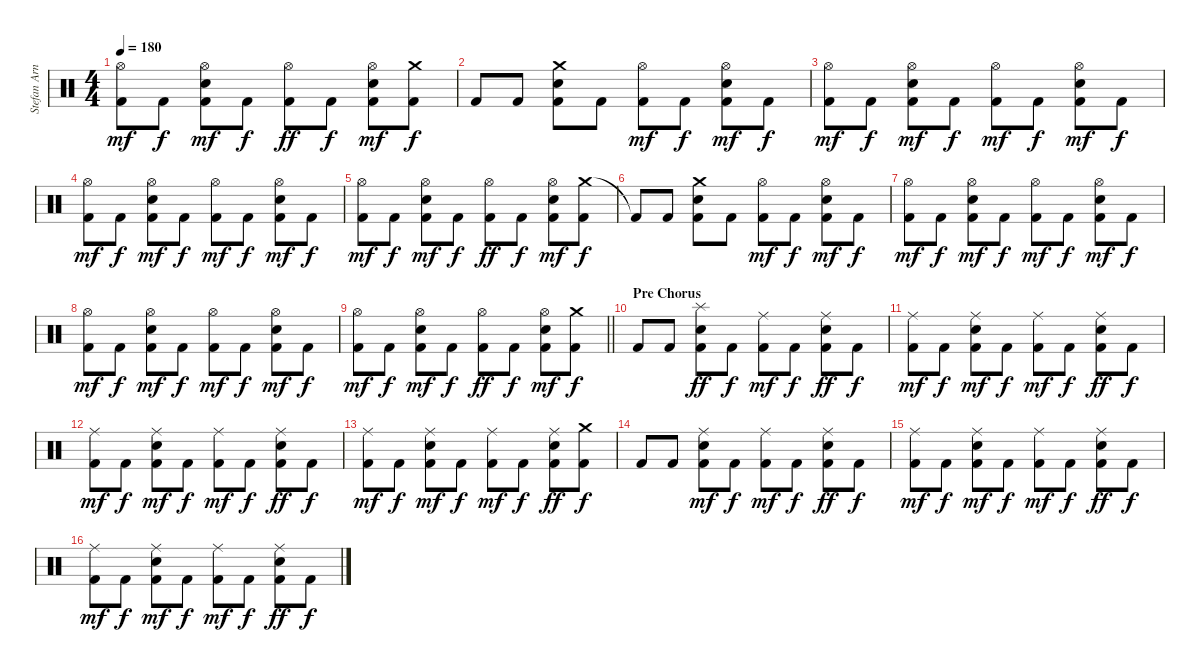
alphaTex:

\track ("Stefan Arnold" "Stefan Arn") {instrument percussion}
\staff {score}
\articulation defaults
\ts (4 4)
\tempo 180
\clef neutral
\ks c
("Hi-Hat (open)" "Kick (hit) 2").8{dy mf} "Kick (hit) 2".8{dy f} ("Hi-Hat (open)" "Electric Snare (hit)" "Kick (hit) 2").8{dy mf} "Kick (hit) 2".8{dy f} ("Hi-Hat (open)" "Kick (hit) 2").8{dy ff} "Kick (hit) 2".8{dy f} ("Hi-Hat (open)" "Electric Snare (hit)" "Kick (hit) 2").8{dy mf} ("Crash medium (hit)" "Kick (hit) 2").8{dy f} |
"Kick (hit) 2".8 "Kick (hit) 2".8 ("Crash medium (hit)" "Electric Snare (hit)" "Kick (hit) 2").8 "Kick (hit) 2".8 ("Hi-Hat (open)" "Kick (hit) 2").8{dy mf} "Kick (hit) 2".8{dy f} ("Hi-Hat (open)" "Electric Snare (hit)" "Kick (hit) 2").8{dy mf} "Kick (hit) 2".8{dy f} |
("Hi-Hat (open)" "Kick (hit) 2").8{dy mf} "Kick (hit) 2".8{dy f} ("Hi-Hat (open)" "Electric Snare (hit)" "Kick (hit) 2").8{dy mf} "Kick (hit) 2".8{dy f} ("Hi-Hat (open)" "Kick (hit) 2").8{dy mf} "Kick (hit) 2".8{dy f} ("Hi-Hat (open)" "Electric Snare (hit)" "Kick (hit) 2").8{dy mf} "Kick (hit) 2".8{dy f} |
("Hi-Hat (open)" "Kick (hit) 2").8{dy mf} "Kick (hit) 2".8{dy f} ("Hi-Hat (open)" "Electric Snare (hit)" "Kick (hit) 2").8{dy mf} "Kick (hit) 2".8{dy f} ("Hi-Hat (open)" "Kick (hit) 2").8{dy mf} "Kick (hit) 2".8{dy f} ("Hi-Hat (open)" "Electric Snare (hit)" "Kick (hit) 2").8{dy mf} "Kick (hit) 2".8{dy f} |
("Hi-Hat (open)" "Kick (hit) 2").8{dy mf} "Kick (hit) 2".8{dy f} ("Hi-Hat (open)" "Electric Snare (hit)" "Kick (hit) 2").8{dy mf} "Kick (hit) 2".8{dy f} ("Hi-Hat (open)" "Kick (hit) 2").8{dy ff} "Kick (hit) 2".8{dy f} ("Hi-Hat (open)" "Electric Snare (hit)" "Kick (hit) 2").8{dy mf} ("Crash medium (hit)" "Kick (hit) 2").8{dy f} |
"Kick (hit) 2"{t}.8 "Kick (hit) 2".8 ("Crash medium (hit)" "Electric Snare (hit)" "Kick (hit) 2").8 "Kick (hit) 2".8 ("Hi-Hat (open)" "Kick (hit) 2").8{dy mf} "Kick (hit) 2".8{dy f} ("Hi-Hat (open)" "Electric Snare (hit)" "Kick (hit) 2").8{dy mf} "Kick (hit) 2".8{dy f} |
("Hi-Hat (open)" "Kick (hit) 2").8{dy mf} "Kick (hit) 2".8{dy f} ("Hi-Hat (open)" "Electric Snare (hit)" "Kick (hit) 2").8{dy mf} "Kick (hit) 2".8{dy f} ("Hi-Hat (open)" "Kick (hit) 2").8{dy mf} "Kick (hit) 2".8{dy f} ("Hi-Hat (open)" "Electric Snare (hit)" "Kick (hit) 2").8{dy mf} "Kick (hit) 2".8{dy f} |
("Hi-Hat (open)" "Kick (hit) 2").8{dy mf} "Kick (hit) 2".8{dy f} ("Hi-Hat (open)" "Electric Snare (hit)" "Kick (hit) 2").8{dy mf} "Kick (hit) 2".8{dy f} ("Hi-Hat (open)" "Kick (hit) 2").8{dy mf} "Kick (hit) 2".8{dy f} ("Hi-Hat (open)" "Electric Snare (hit)" "Kick (hit) 2").8{dy mf} "Kick (hit) 2".8{dy f} |
\barLineRight lightlight
("Hi-Hat (open)" "Kick (hit) 2").8{dy mf} "Kick (hit) 2".8{dy f} ("Hi-Hat (open)" "Electric Snare (hit)" "Kick (hit) 2").8{dy mf} "Kick (hit) 2".8{dy f} ("Hi-Hat (open)" "Kick (hit) 2").8{dy ff} "Kick (hit) 2".8{dy f} ("Hi-Hat (open)" "Electric Snare (hit)" "Kick (hit) 2").8{dy mf} ("Crash medium (hit)" "Kick (hit) 2").8{dy f} |
\section ("" "Pre Chorus")
"Kick (hit) 2".8 "Kick (hit) 2".8 ("Splash (hit)" "Electric Snare (hit)" "Kick (hit) 2").8{dy ff} "Kick (hit) 2".8{dy f} ("Ride (middle)" "Kick (hit) 2").8{dy mf} "Kick (hit) 2".8{dy f} ("Ride (middle)" "Electric Snare (hit)" "Kick (hit) 2").8{dy ff} "Kick (hit) 2".8{dy f} |
("Ride (middle)" "Kick (hit) 2").8{dy mf} "Kick (hit) 2".8{dy f} ("Ride (middle)" "Electric Snare (hit)" "Kick (hit) 2").8{dy mf} "Kick (hit) 2".8{dy f} ("Ride (middle)" "Kick (hit) 2").8{dy mf} "Kick (hit) 2".8{dy f} ("Ride (middle)" "Electric Snare (hit)" "Kick (hit) 2").8{dy ff} "Kick (hit) 2".8{dy f} |
("Ride (middle)" "Kick (hit) 2").8{dy mf} "Kick (hit) 2".8{dy f} ("Ride (middle)" "Electric Snare (hit)" "Kick (hit) 2").8{dy mf} "Kick (hit) 2".8{dy f} ("Ride (middle)" "Kick (hit) 2").8{dy mf} "Kick (hit) 2".8{dy f} ("Ride (middle)" "Electric Snare (hit)" "Kick (hit) 2").8{dy ff} "Kick (hit) 2".8{dy f} |
("Ride (middle)" "Kick (hit) 2").8{dy mf} "Kick (hit) 2".8{dy f} ("Ride (middle)" "Electric Snare (hit)" "Kick (hit) 2").8{dy mf} "Kick (hit) 2".8{dy f} ("Ride (middle)" "Kick (hit) 2").8{dy mf} "Kick (hit) 2".8{dy f} ("Ride (middle)" "Electric Snare (hit)" "Kick (hit) 2").8{dy ff} ("Crash medium (hit)" "Kick (hit) 2").8{dy f} |
"Kick (hit) 2".8 "Kick (hit) 2".8 ("Ride (middle)" "Electric Snare (hit)" "Kick (hit) 2").8{dy mf} "Kick (hit) 2".8{dy f} ("Ride (middle)" "Kick (hit) 2").8{dy mf} "Kick (hit) 2".8{dy f} ("Ride (middle)" "Electric Snare (hit)" "Kick (hit) 2").8{dy ff} "Kick (hit) 2".8{dy f} |
("Ride (middle)" "Kick (hit) 2").8{dy mf} "Kick (hit) 2".8{dy f} ("Ride (middle)" "Electric Snare (hit)" "Kick (hit) 2").8{dy mf} "Kick (hit) 2".8{dy f} ("Ride (middle)" "Kick (hit) 2").8{dy mf} "Kick (hit) 2".8{dy f} ("Ride (middle)" "Electric Snare (hit)" "Kick (hit) 2").8{dy ff} "Kick (hit) 2".8{dy f} |
("Ride (middle)" "Kick (hit) 2").8{dy mf} "Kick (hit) 2".8{dy f} ("Ride (middle)" "Electric Snare (hit)" "Kick (hit) 2").8{dy mf} "Kick (hit) 2".8{dy f} ("Ride (middle)" "Kick (hit) 2").8{dy mf} "Kick (hit) 2".8{dy f} ("Ride (middle)" "Electric Snare (hit)" "Kick (hit) 2").8{dy ff} "Kick (hit) 2".8{dy f}
